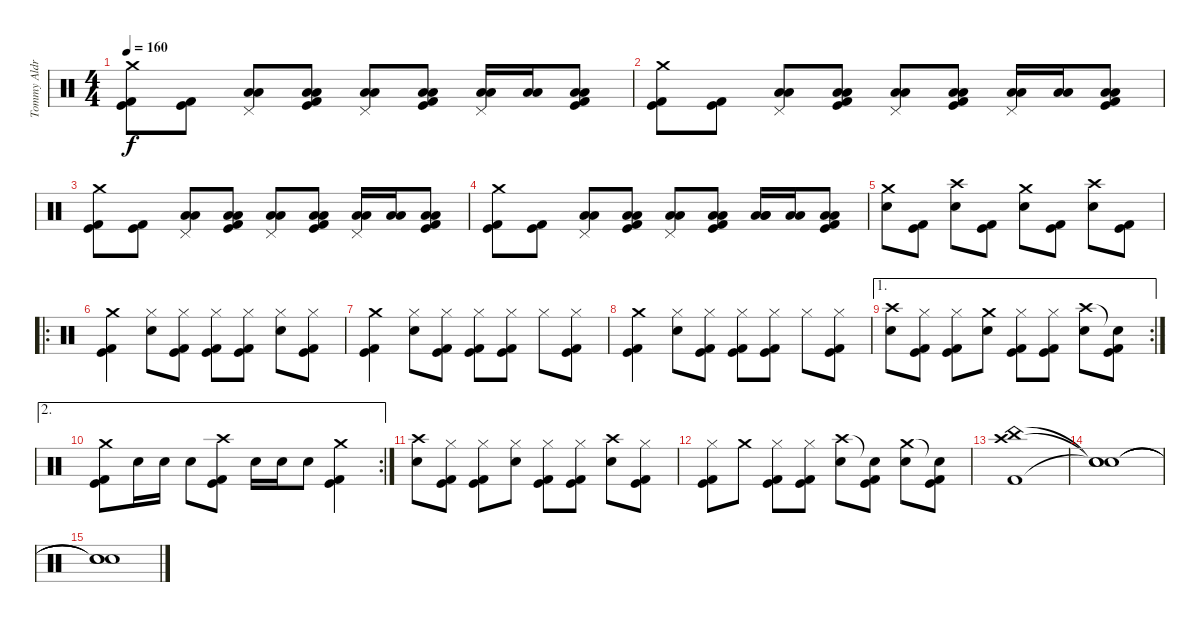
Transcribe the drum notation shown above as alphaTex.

\track ("Tommy Aldridge" "Tommy Aldr") {instrument percussion}
\staff {score}
\articulation defaults
\ts (4 4)
\tempo 160
\clef neutral
\ks c
("Crash medium (hit)" "Kick (hit)" "Kick (hit) 2").8{dy f} ("Kick (hit)" "Kick (hit) 2").8 ("Pedal Hi-Hat (hit)" "Low Tom (hit)" "Low Tom (hit)").8 ("Low Tom (hit)" "Low Tom (hit)" "Kick (hit)" "Kick (hit) 2").8 ("Pedal Hi-Hat (hit)" "Low Tom (hit)" "Low Tom (hit)").8 ("Low Tom (hit)" "Low Tom (hit)" "Kick (hit)" "Kick (hit) 2").8 ("Pedal Hi-Hat (hit)" "Low Tom (hit)" "Low Tom (hit)").16 ("Low Tom (hit)" "Low Tom (hit)").16 ("Low Tom (hit)" "Low Tom (hit)" "Kick (hit)" "Kick (hit) 2").8 |
("Crash medium (hit)" "Kick (hit)" "Kick (hit) 2").8 ("Kick (hit)" "Kick (hit) 2").8 ("Pedal Hi-Hat (hit)" "Low Tom (hit)" "Low Tom (hit)").8 ("Low Tom (hit)" "Low Tom (hit)" "Kick (hit)" "Kick (hit) 2").8 ("Pedal Hi-Hat (hit)" "Low Tom (hit)" "Low Tom (hit)").8 ("Low Tom (hit)" "Low Tom (hit)" "Kick (hit)" "Kick (hit) 2").8 ("Pedal Hi-Hat (hit)" "Low Tom (hit)" "Low Tom (hit)").16 ("Low Tom (hit)" "Low Tom (hit)").16 ("Low Tom (hit)" "Low Tom (hit)" "Kick (hit)" "Kick (hit) 2").8 |
("Crash medium (hit)" "Kick (hit)" "Kick (hit) 2").8 ("Kick (hit)" "Kick (hit) 2").8 ("Pedal Hi-Hat (hit)" "Low Tom (hit)" "Low Tom (hit)").8 ("Low Tom (hit)" "Low Tom (hit)" "Kick (hit)" "Kick (hit) 2").8 ("Pedal Hi-Hat (hit)" "Low Tom (hit)" "Low Tom (hit)").8 ("Low Tom (hit)" "Low Tom (hit)" "Kick (hit)" "Kick (hit) 2").8 ("Pedal Hi-Hat (hit)" "Low Tom (hit)" "Low Tom (hit)").16 ("Low Tom (hit)" "Low Tom (hit)").16 ("Low Tom (hit)" "Low Tom (hit)" "Kick (hit)" "Kick (hit) 2").8 |
("Crash medium (hit)" "Kick (hit)" "Kick (hit) 2").8 ("Kick (hit)" "Kick (hit) 2").8 ("Pedal Hi-Hat (hit)" "Low Tom (hit)" "Low Tom (hit)").8 ("Low Tom (hit)" "Low Tom (hit)" "Kick (hit)" "Kick (hit) 2").8 ("Pedal Hi-Hat (hit)" "Low Tom (hit)" "Low Tom (hit)").8 ("Low Tom (hit)" "Low Tom (hit)" "Kick (hit)" "Kick (hit) 2").8 ("Low Tom (hit)" "Low Tom (hit)" "Low Tom (hit)").16 ("Low Tom (hit)" "Low Tom (hit)").16 ("Low Tom (hit)" "Low Tom (hit)" "Kick (hit)" "Kick (hit) 2").8 |
("Crash medium (hit)" "Electric Snare (hit)").8 ("Kick (hit)" "Kick (hit) 2").8 ("Crash high (hit)" "Electric Snare (hit)").8 ("Kick (hit)" "Kick (hit) 2").8 ("Crash medium (hit)" "Electric Snare (hit)").8 ("Kick (hit)" "Kick (hit) 2").8 ("Crash high (hit)" "Electric Snare (hit)").8 ("Kick (hit)" "Kick (hit) 2").8 |
\ro
("Crash medium (hit)" "Kick (hit)" "Kick (hit) 2").4 ("Hi-Hat (closed)" "Electric Snare (hit)").8 ("Hi-Hat (closed)" "Kick (hit)" "Kick (hit) 2").8 ("Hi-Hat (closed)" "Kick (hit)" "Kick (hit) 2").8 ("Hi-Hat (closed)" "Kick (hit)" "Kick (hit) 2").8 ("Hi-Hat (closed)" "Electric Snare (hit)").8 ("Hi-Hat (closed)" "Kick (hit)" "Kick (hit) 2").8 |
("Crash medium (hit)" "Kick (hit)" "Kick (hit) 2").4 ("Hi-Hat (closed)" "Electric Snare (hit)").8 ("Hi-Hat (closed)" "Kick (hit)" "Kick (hit) 2").8 ("Hi-Hat (closed)" "Kick (hit)" "Kick (hit) 2").8 ("Hi-Hat (closed)" "Kick (hit)" "Kick (hit) 2").8 "Hi-Hat (closed)".8 ("Hi-Hat (closed)" "Kick (hit)" "Kick (hit) 2").8 |
("Crash medium (hit)" "Kick (hit)" "Kick (hit) 2").4 ("Hi-Hat (closed)" "Electric Snare (hit)").8 ("Hi-Hat (closed)" "Kick (hit)" "Kick (hit) 2").8 ("Hi-Hat (closed)" "Kick (hit)" "Kick (hit) 2").8 ("Hi-Hat (closed)" "Kick (hit)" "Kick (hit) 2").8 "Hi-Hat (closed)".8 ("Hi-Hat (closed)" "Kick (hit)" "Kick (hit) 2").8 |
\ae 1
\rc 2
("Crash high (hit)" "Electric Snare (hit)").8 ("Hi-Hat (closed)" "Kick (hit)" "Kick (hit) 2").8 ("Hi-Hat (closed)" "Kick (hit)" "Kick (hit) 2").8 ("Crash medium (hit)" "Electric Snare (hit)").8 ("Hi-Hat (closed)" "Kick (hit)" "Kick (hit) 2").8 ("Hi-Hat (closed)" "Kick (hit)" "Kick (hit) 2").8 ("Crash high (hit)" "Electric Snare (hit)").8 ("Snare (hit)"{t} "Kick (hit)" "Kick (hit) 2").8 |
\ae 2
\rc 2
("Crash medium (hit)" "Kick (hit)" "Kick (hit) 2").8 "Electric Snare (hit)".16 "Electric Snare (hit)".16 "Electric Snare (hit)".8 ("Crash high (hit)" "Kick (hit)" "Kick (hit) 2").8 "Electric Snare (hit)".16 "Electric Snare (hit)".16 "Electric Snare (hit)".8 ("Crash medium (hit)" "Kick (hit)" "Kick (hit) 2").4 |
("Crash high (hit)" "Electric Snare (hit)").8 ("Hi-Hat (closed)" "Kick (hit)" "Kick (hit) 2").8 ("Hi-Hat (closed)" "Kick (hit)" "Kick (hit) 2").8 ("Hi-Hat (closed)" "Electric Snare (hit)").8 ("Hi-Hat (closed)" "Kick (hit)" "Kick (hit) 2").8 ("Hi-Hat (closed)" "Kick (hit)" "Kick (hit) 2").8 ("Crash high (hit)" "Electric Snare (hit)").8 ("Hi-Hat (closed)" "Kick (hit)" "Kick (hit) 2").8 |
("Hi-Hat (closed)" "Kick (hit)" "Kick (hit) 2").8 "Crash medium (hit)".8 ("Hi-Hat (closed)" "Kick (hit)" "Kick (hit) 2").8 ("Hi-Hat (closed)" "Kick (hit)" "Kick (hit) 2").8 ("Crash high (hit)" "Electric Snare (hit)").8 ("Snare (hit)"{t} "Kick (hit)" "Kick (hit) 2").8 ("Crash medium (hit)" "Electric Snare (hit)").8 ("Snare (hit)"{t} "Kick (hit)" "Kick (hit) 2").8 |
("China (hit)" "Crash high (hit)" "Kick (hit) 2").1 |
("Snare (hit)"{t} "Snare (hit)"{t} "Snare (hit)"{t}).1 |
("Snare (hit)"{t} "Snare (hit)"{t} "Snare (hit)"{t}).1
